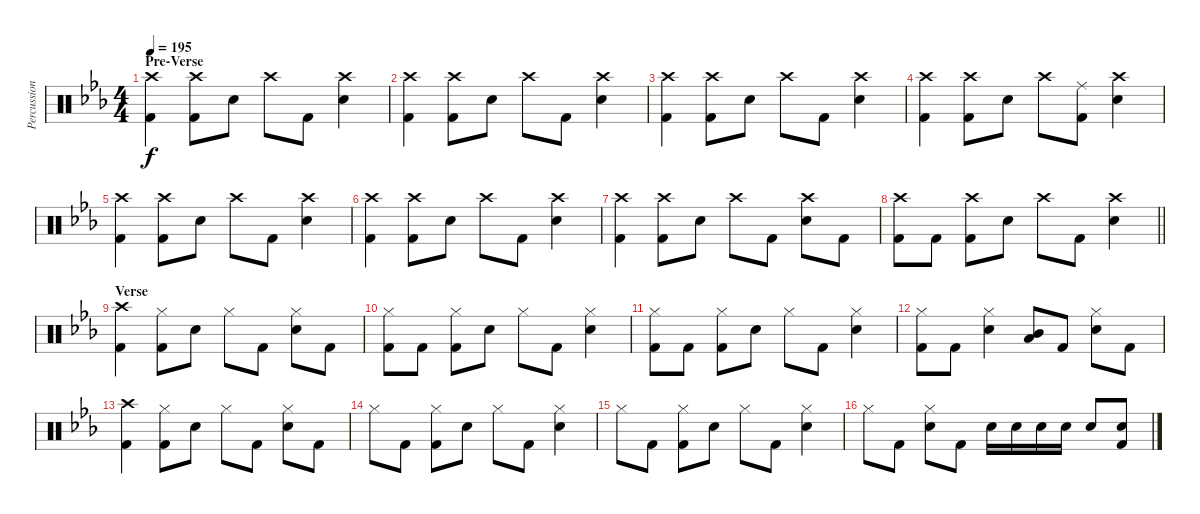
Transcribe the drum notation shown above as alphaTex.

\track ("Percussion" "Percussion") {instrument percussion}
\staff {score}
\articulation defaults
\ts (4 4)
\section ("" "Pre-Verse")
\tempo 195
\clef neutral
\ks eb
("Crash high (hit)" "Kick (hit) 2").4{dy f} ("Crash high (hit)" "Kick (hit) 2").8 "Snare (hit) 2".8 "Crash high (hit)".8 "Kick (hit) 2".8 ("Crash high (hit)" "Snare (hit) 2").4 |
("Crash high (hit)" "Kick (hit) 2").4 ("Crash high (hit)" "Kick (hit) 2").8 "Snare (hit) 2".8 "Crash high (hit)".8 "Kick (hit) 2".8 ("Crash high (hit)" "Snare (hit) 2").4 |
("Crash high (hit)" "Kick (hit) 2").4 ("Crash high (hit)" "Kick (hit) 2").8 "Snare (hit) 2".8 "Crash high (hit)".8 "Kick (hit) 2".8 ("Crash high (hit)" "Snare (hit) 2").4 |
("Crash high (hit)" "Kick (hit) 2").4 ("Crash high (hit)" "Kick (hit) 2").8 "Snare (hit) 2".8 "Crash high (hit)".8 ("Ride (middle)" "Kick (hit) 2").8 ("Crash high (hit)" "Snare (hit) 2").4 |
("Crash high (hit)" "Kick (hit) 2").4 ("Crash high (hit)" "Kick (hit) 2").8 "Snare (hit) 2".8 "Crash high (hit)".8 "Kick (hit) 2".8 ("Crash high (hit)" "Snare (hit) 2").4 |
("Crash high (hit)" "Kick (hit) 2").4 ("Crash high (hit)" "Kick (hit) 2").8 "Snare (hit) 2".8 "Crash high (hit)".8 "Kick (hit) 2".8 ("Crash high (hit)" "Snare (hit) 2").4 |
("Crash high (hit)" "Kick (hit) 2").4 ("Crash high (hit)" "Kick (hit) 2").8 "Snare (hit) 2".8 "Crash high (hit)".8 "Kick (hit) 2".8 ("Crash high (hit)" "Snare (hit) 2").8 "Kick (hit) 2".8 |
\barLineRight lightlight
("Crash high (hit)" "Kick (hit) 2").8 "Kick (hit) 2".8 ("Crash high (hit)" "Kick (hit) 2").8 "Snare (hit) 2".8 "Crash high (hit)".8 "Kick (hit) 2".8 ("Crash high (hit)" "Snare (hit) 2").4 |
\section ("" "Verse")
("Crash high (hit)" "Kick (hit) 2").4 ("Hi-Hat (closed)" "Kick (hit) 2").8 "Snare (hit) 2".8 "Hi-Hat (closed)".8 "Kick (hit) 2".8 ("Hi-Hat (closed)" "Snare (hit) 2").8 "Kick (hit) 2".8 |
("Hi-Hat (closed)" "Kick (hit) 2").8 "Kick (hit) 2".8 ("Hi-Hat (closed)" "Kick (hit) 2").8 "Snare (hit) 2".8 "Hi-Hat (closed)".8 "Kick (hit) 2".8 ("Hi-Hat (closed)" "Snare (hit) 2").4 |
("Hi-Hat (closed)" "Kick (hit) 2").8 "Kick (hit) 2".8 ("Hi-Hat (closed)" "Kick (hit) 2").8 "Snare (hit) 2".8 "Hi-Hat (closed)".8 "Kick (hit) 2".8 ("Hi-Hat (closed)" "Snare (hit) 2").4 |
("Hi-Hat (closed)" "Kick (hit) 2").8 "Kick (hit) 2".8 ("Hi-Hat (closed)" "Snare (hit) 2").4 ("Mid Tom (hit)" "Low Tom (hit)").8 "Kick (hit) 2".8 ("Hi-Hat (closed)" "Snare (hit) 2").8 "Kick (hit) 2".8 |
("Crash high (hit)" "Kick (hit) 2").4 ("Hi-Hat (closed)" "Kick (hit) 2").8 "Snare (hit) 2".8 "Hi-Hat (closed)".8 "Kick (hit) 2".8 ("Hi-Hat (closed)" "Snare (hit) 2").8 "Kick (hit) 2".8 |
"Hi-Hat (closed)".8 "Kick (hit) 2".8 ("Hi-Hat (closed)" "Kick (hit) 2").8 "Snare (hit) 2".8 "Hi-Hat (closed)".8 "Kick (hit) 2".8 ("Hi-Hat (closed)" "Snare (hit) 2").4 |
"Hi-Hat (closed)".8 "Kick (hit) 2".8 ("Hi-Hat (closed)" "Kick (hit) 2").8 "Snare (hit) 2".8 "Hi-Hat (closed)".8 "Kick (hit) 2".8 ("Hi-Hat (closed)" "Snare (hit) 2").4 |
"Hi-Hat (closed)".8 "Kick (hit) 2".8 ("Hi-Hat (closed)" "Snare (hit) 2").8 "Kick (hit) 2".8 "Snare (hit) 2".16 "Snare (hit) 2".16 "Snare (hit) 2".16 "Snare (hit) 2".16 "Snare (hit) 2".8 ("Snare (hit) 2" "Kick (hit) 2").8
